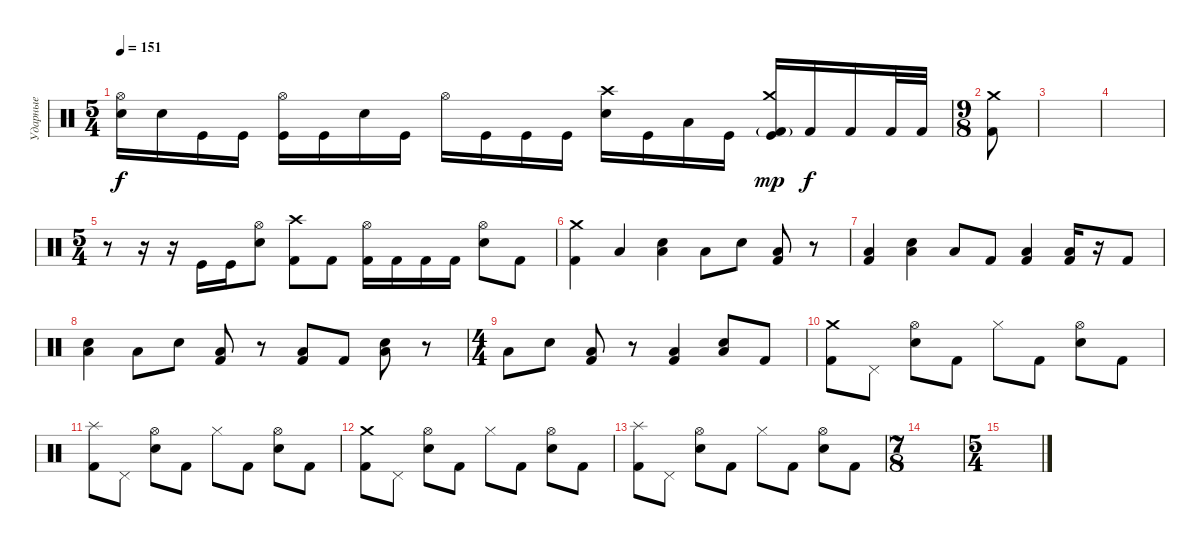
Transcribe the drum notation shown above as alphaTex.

\track ("Ударные" "Ударные") {instrument percussion}
\staff {score}
\articulation defaults
\ts (5 4)
\tempo 151
\clef neutral
\ks c
("Hi-Hat (open)" "Snare (hit) 2").16{dy f} "Snare (hit) 2".16 "Kick (hit)".16 "Kick (hit)".16 ("Hi-Hat (open)" "Kick (hit)").16 "Kick (hit)".16 "Snare (hit) 2".16 "Kick (hit)".16 "Hi-Hat (open)".16 "Kick (hit)".16 "Kick (hit)".16 "Kick (hit)".16 ("Crash high (hit)" "Snare (hit) 2").16 "Kick (hit)".16 "Low Floor Tom (hit)".16 "Kick (hit)".16 ("Crash medium (hit)" "Kick (hit) 2"{g} "Kick (hit)").16{dy mp} "Kick (hit) 2".16{dy f} "Kick (hit) 2".16 "Kick (hit) 2".32 "Kick (hit) 2".32 |
\ts (9 8)
("Crash medium (hit)" "Kick (hit) 2").8 |
|
|
\ts (5 4)
r.8 r.16 r.16 "Kick (hit)".16 "Kick (hit)".16 ("Hi-Hat (open)" "Snare (hit) 2").8 ("Crash high (hit)" "Kick (hit) 2").8 "Kick (hit) 2".8 ("Hi-Hat (open)" "Kick (hit) 2").16 "Kick (hit) 2".16 "Kick (hit) 2".16 "Kick (hit) 2".16 ("Hi-Hat (open)" "Snare (hit) 2").8 "Kick (hit) 2".8 |
("Crash medium (hit)" "Kick (hit) 2").4 "Low Floor Tom (hit)".4 ("Low Floor Tom (hit)" "Snare (hit) 2").4 "Low Floor Tom (hit)".8 "Snare (hit) 2".8 ("Low Floor Tom (hit)" "Kick (hit) 2").8 r.8 |
("Low Floor Tom (hit)" "Kick (hit) 2").4 ("Low Floor Tom (hit)" "Snare (hit) 2").4 "Low Floor Tom (hit)".8 "Kick (hit) 2".8 ("Low Floor Tom (hit)" "Kick (hit) 2").4 ("Low Floor Tom (hit)" "Kick (hit) 2").16 r.16 "Kick (hit) 2".8 |
("Low Floor Tom (hit)" "Snare (hit) 2").4 "Low Floor Tom (hit)".8 "Snare (hit) 2".8 ("Low Floor Tom (hit)" "Kick (hit) 2").8 r.8 ("Low Floor Tom (hit)" "Kick (hit) 2").8 "Kick (hit) 2".8 ("Low Floor Tom (hit)" "Snare (hit) 2").8 r.8 |
\ts (4 4)
"Low Floor Tom (hit)".8 "Snare (hit) 2".8 ("Low Floor Tom (hit)" "Kick (hit) 2").8 r.8 ("Low Floor Tom (hit)" "Kick (hit) 2").4 ("Low Floor Tom (hit)" "Snare (hit) 2").8 "Kick (hit) 2".8 |
("Crash medium (hit)" "Kick (hit) 2").8 "Pedal Hi-Hat (hit)".8 ("Hi-Hat (open)" "Snare (hit) 2").8 "Kick (hit) 2".8 "Hi-Hat (closed)".8 "Kick (hit) 2".8 ("Hi-Hat (open)" "Snare (hit) 2").8 "Kick (hit) 2".8 |
("Splash (hit)" "Kick (hit) 2").8 "Pedal Hi-Hat (hit)".8 ("Hi-Hat (open)" "Snare (hit) 2").8 "Kick (hit) 2".8 "Hi-Hat (closed)".8 "Kick (hit) 2".8 ("Hi-Hat (open)" "Snare (hit) 2").8 "Kick (hit) 2".8 |
("Crash medium (hit)" "Kick (hit) 2").8 "Pedal Hi-Hat (hit)".8 ("Hi-Hat (open)" "Snare (hit) 2").8 "Kick (hit) 2".8 "Hi-Hat (closed)".8 "Kick (hit) 2".8 ("Hi-Hat (open)" "Snare (hit) 2").8 "Kick (hit) 2".8 |
("Splash (hit)" "Kick (hit) 2").8 "Pedal Hi-Hat (hit)".8 ("Hi-Hat (open)" "Snare (hit) 2").8 "Kick (hit) 2".8 "Hi-Hat (closed)".8 "Kick (hit) 2".8 ("Hi-Hat (open)" "Snare (hit) 2").8 "Kick (hit) 2".8 |
\ts (7 8)
|
\ts (5 4)
